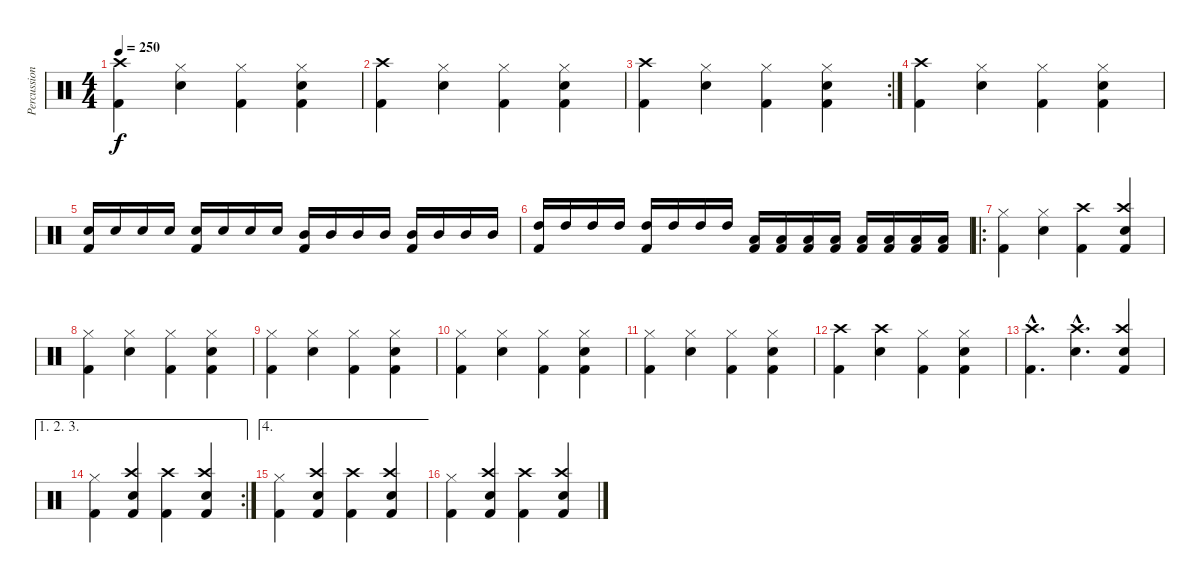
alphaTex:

\track ("Percussion" "Percussion") {instrument percussion}
\staff {score}
\articulation defaults
\ts (4 4)
\tempo 250
\clef neutral
\ks c
("Kick (hit) 2" "Crash high (hit)").4{dy f} ("Electric Snare (hit)" "Hi-Hat (closed)").4 ("Kick (hit) 2" "Hi-Hat (closed)").4 ("Electric Snare (hit)" "Kick (hit) 2" "Hi-Hat (closed)").4 |
("Kick (hit) 2" "Crash high (hit)").4 ("Electric Snare (hit)" "Hi-Hat (closed)").4 ("Kick (hit) 2" "Hi-Hat (closed)").4 ("Electric Snare (hit)" "Kick (hit) 2" "Hi-Hat (closed)").4 |
\rc 2
("Kick (hit) 2" "Crash high (hit)").4 ("Electric Snare (hit)" "Hi-Hat (closed)").4 ("Kick (hit) 2" "Hi-Hat (closed)").4 ("Electric Snare (hit)" "Kick (hit) 2" "Hi-Hat (closed)").4 |
("Kick (hit) 2" "Crash high (hit)").4 ("Electric Snare (hit)" "Hi-Hat (closed)").4 ("Kick (hit) 2" "Hi-Hat (closed)").4 ("Electric Snare (hit)" "Kick (hit) 2" "Hi-Hat (closed)").4 |
("Electric Snare (hit)" "Kick (hit) 2").16 "Electric Snare (hit)".16 "Electric Snare (hit)".16 "Electric Snare (hit)".16 ("Electric Snare (hit)" "Kick (hit) 2").16 "Electric Snare (hit)".16 "Electric Snare (hit)".16 "Electric Snare (hit)".16 ("Mid Tom (hit)" "Kick (hit) 2").16 "Mid Tom (hit)".16 "Mid Tom (hit)".16 "Mid Tom (hit)".16 ("Mid Tom (hit)" "Kick (hit) 2").16 "Mid Tom (hit)".16 "Mid Tom (hit)".16 "Mid Tom (hit)".16 |
("High Tom (hit)" "Kick (hit) 2").16 "High Tom (hit)".16 "High Tom (hit)".16 "High Tom (hit)".16 ("High Tom (hit)" "Kick (hit) 2").16 "High Tom (hit)".16 "High Tom (hit)".16 "High Tom (hit)".16 ("Low Tom (hit)" "Kick (hit) 2").16 ("Low Tom (hit)" "Kick (hit) 2").16 ("Low Tom (hit)" "Kick (hit) 2").16 ("Low Tom (hit)" "Kick (hit) 2").16 ("Low Tom (hit)" "Kick (hit) 2").16 ("Low Tom (hit)" "Kick (hit) 2").16 ("Low Tom (hit)" "Kick (hit) 2").16 ("Low Tom (hit)" "Kick (hit) 2").16 |
\ro
("Kick (hit) 2" "Hi-Hat (closed)").4 ("Electric Snare (hit)" "Hi-Hat (closed)").4 ("Kick (hit) 2" "Crash high (hit)").4 ("Electric Snare (hit)" "Kick (hit) 2" "Crash high (hit)").4 |
("Kick (hit) 2" "Hi-Hat (closed)").4 ("Electric Snare (hit)" "Hi-Hat (closed)").4 ("Kick (hit) 2" "Hi-Hat (closed)").4 ("Electric Snare (hit)" "Kick (hit) 2" "Hi-Hat (closed)").4 |
("Kick (hit) 2" "Hi-Hat (closed)").4 ("Electric Snare (hit)" "Hi-Hat (closed)").4 ("Kick (hit) 2" "Hi-Hat (closed)").4 ("Electric Snare (hit)" "Kick (hit) 2" "Hi-Hat (closed)").4 |
("Kick (hit) 2" "Hi-Hat (closed)").4 ("Electric Snare (hit)" "Hi-Hat (closed)").4 ("Kick (hit) 2" "Hi-Hat (closed)").4 ("Electric Snare (hit)" "Kick (hit) 2" "Hi-Hat (closed)").4 |
("Kick (hit) 2" "Hi-Hat (closed)").4 ("Electric Snare (hit)" "Hi-Hat (closed)").4 ("Kick (hit) 2" "Hi-Hat (closed)").4 ("Electric Snare (hit)" "Kick (hit) 2" "Hi-Hat (closed)").4 |
("Kick (hit) 2" "Crash high (hit)").4 ("Electric Snare (hit)" "Crash high (hit)").4 ("Kick (hit) 2" "Hi-Hat (closed)").4 ("Electric Snare (hit)" "Kick (hit) 2" "Hi-Hat (closed)").4 |
("Kick (hit) 2"{hac} "Crash high (hit)"{hac}).4{d} ("Electric Snare (hit)"{hac} "Crash high (hit)"{hac}).4{d} ("Electric Snare (hit)" "Kick (hit) 2" "Crash high (hit)").4 |
\ae (1 2 3)
\rc 2
("Kick (hit) 2" "Hi-Hat (closed)").4 ("Electric Snare (hit)" "Kick (hit) 2" "Crash high (hit)").4 ("Kick (hit) 2" "Crash high (hit)").4 ("Electric Snare (hit)" "Kick (hit) 2" "Crash high (hit)").4 |
\ae 4
("Kick (hit) 2" "Hi-Hat (closed)").4 ("Electric Snare (hit)" "Kick (hit) 2" "Crash high (hit)").4 ("Kick (hit) 2" "Crash high (hit)").4 ("Electric Snare (hit)" "Kick (hit) 2" "Crash high (hit)").4 |
("Kick (hit) 2" "Hi-Hat (closed)").4 ("Electric Snare (hit)" "Kick (hit) 2" "Crash high (hit)").4 ("Kick (hit) 2" "Crash high (hit)").4 ("Electric Snare (hit)" "Kick (hit) 2" "Crash high (hit)").4
